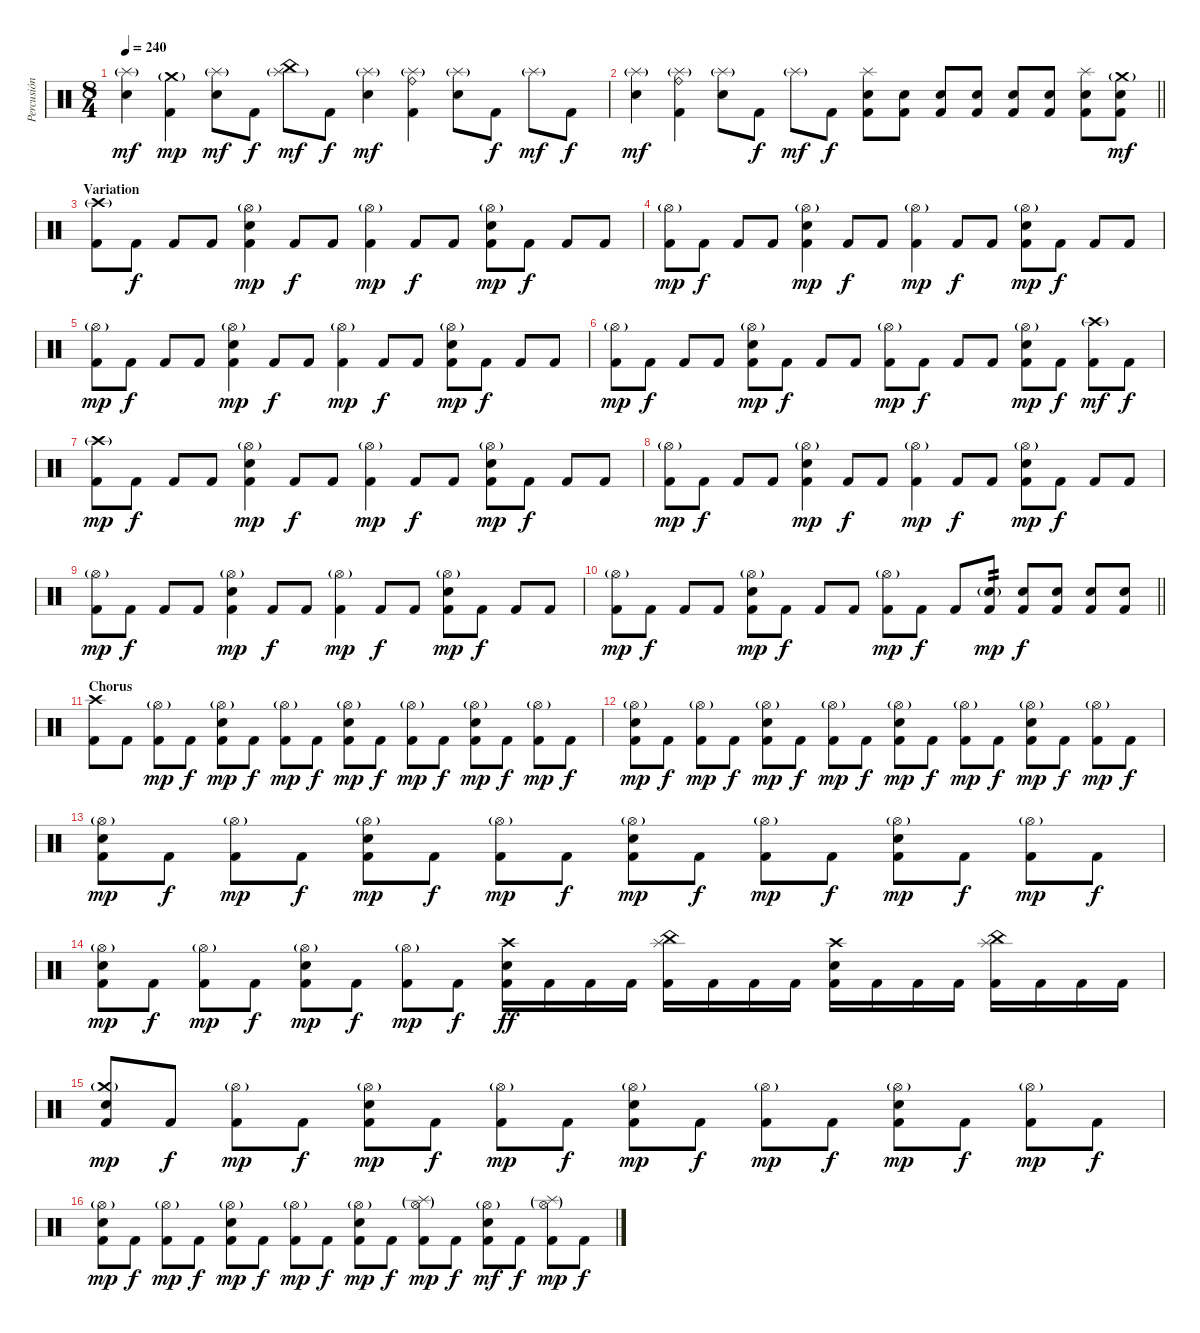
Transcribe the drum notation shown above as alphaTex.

\track ("Percusión" "Percusión") {instrument percussion}
\staff {score}
\articulation defaults
\ts (8 4)
\tempo 240
\clef neutral
\ks c
("Splash (hit)"{g} "Electric Snare (hit)").4{dy mf} ("Crash medium (hit)"{g} "Kick (hit) 2").4{dy mp} ("Splash (hit)"{g} "Electric Snare (hit)").8{dy mf} "Kick (hit) 2".8{dy f} ("China (hit)" "Splash (hit)"{g}).8{dy mf} "Kick (hit) 2".8{dy f} ("Splash (hit)"{g} "Electric Snare (hit)").4{dy mf} ("Ride (bell)" "Splash (hit)"{g} "Kick (hit) 2").4 ("Splash (hit)"{g} "Electric Snare (hit)").8 "Kick (hit) 2".8{dy f} "Splash (hit)"{g}.8{dy mf} "Kick (hit) 2".8{dy f} |
\barLineRight lightlight
("Splash (hit)"{g} "Electric Snare (hit)").4{dy mf} ("Ride (bell)" "Splash (hit)"{g} "Kick (hit) 2").4 ("Splash (hit)"{g} "Electric Snare (hit)").8 "Kick (hit) 2".8{dy f} "Splash (hit)"{g}.8{dy mf} "Kick (hit) 2".8{dy f} ("Splash (hit)" "Electric Snare (hit)" "Kick (hit) 2").8 ("Electric Snare (hit)" "Kick (hit) 2").8 ("Electric Snare (hit)" "Kick (hit) 2").8 ("Electric Snare (hit)" "Kick (hit) 2").8 ("Electric Snare (hit)" "Kick (hit) 2").8 ("Electric Snare (hit)" "Kick (hit) 2").8 ("Splash (hit)" "Electric Snare (hit)" "Kick (hit) 2").8 ("Crash medium (hit)"{g} "Electric Snare (hit)" "Kick (hit) 2").8{dy mf} |
\section ("" "Variation")
("Crash high (hit)"{g} "Kick (hit) 2").8 "Kick (hit) 2".8{dy f} "Kick (hit) 2".8 "Kick (hit) 2".8 ("Hi-Hat (open)"{g} "Electric Snare (hit)" "Kick (hit) 2").4{dy mp} "Kick (hit) 2".8{dy f} "Kick (hit) 2".8 ("Hi-Hat (open)"{g} "Kick (hit) 2").4{dy mp} "Kick (hit) 2".8{dy f} "Kick (hit) 2".8 ("Hi-Hat (open)"{g} "Electric Snare (hit)" "Kick (hit) 2").8{dy mp} "Kick (hit) 2".8{dy f} "Kick (hit) 2".8 "Kick (hit) 2".8 |
("Hi-Hat (open)"{g} "Kick (hit) 2").8{dy mp} "Kick (hit) 2".8{dy f} "Kick (hit) 2".8 "Kick (hit) 2".8 ("Hi-Hat (open)"{g} "Electric Snare (hit)" "Kick (hit) 2").4{dy mp} "Kick (hit) 2".8{dy f} "Kick (hit) 2".8 ("Hi-Hat (open)"{g} "Kick (hit) 2").4{dy mp} "Kick (hit) 2".8{dy f} "Kick (hit) 2".8 ("Hi-Hat (open)"{g} "Electric Snare (hit)" "Kick (hit) 2").8{dy mp} "Kick (hit) 2".8{dy f} "Kick (hit) 2".8 "Kick (hit) 2".8 |
("Hi-Hat (open)"{g} "Kick (hit) 2").8{dy mp} "Kick (hit) 2".8{dy f} "Kick (hit) 2".8 "Kick (hit) 2".8 ("Hi-Hat (open)"{g} "Electric Snare (hit)" "Kick (hit) 2").4{dy mp} "Kick (hit) 2".8{dy f} "Kick (hit) 2".8 ("Hi-Hat (open)"{g} "Kick (hit) 2").4{dy mp} "Kick (hit) 2".8{dy f} "Kick (hit) 2".8 ("Hi-Hat (open)"{g} "Electric Snare (hit)" "Kick (hit) 2").8{dy mp} "Kick (hit) 2".8{dy f} "Kick (hit) 2".8 "Kick (hit) 2".8 |
("Hi-Hat (open)"{g} "Kick (hit) 2").8{dy mp} "Kick (hit) 2".8{dy f} "Kick (hit) 2".8 "Kick (hit) 2".8 ("Hi-Hat (open)"{g} "Electric Snare (hit)" "Kick (hit) 2").8{dy mp} "Kick (hit) 2".8{dy f} "Kick (hit) 2".8 "Kick (hit) 2".8 ("Hi-Hat (open)"{g} "Kick (hit) 2").8{dy mp} "Kick (hit) 2".8{dy f} "Kick (hit) 2".8 "Kick (hit) 2".8 ("Hi-Hat (open)"{g} "Electric Snare (hit)" "Kick (hit) 2").8{dy mp} "Kick (hit) 2".8{dy f} ("Crash high (hit)"{g} "Kick (hit) 2").8{dy mf} "Kick (hit) 2".8{dy f} |
("Crash high (hit)"{g} "Kick (hit) 2").8{dy mp} "Kick (hit) 2".8{dy f} "Kick (hit) 2".8 "Kick (hit) 2".8 ("Hi-Hat (open)"{g} "Electric Snare (hit)" "Kick (hit) 2").4{dy mp} "Kick (hit) 2".8{dy f} "Kick (hit) 2".8 ("Hi-Hat (open)"{g} "Kick (hit) 2").4{dy mp} "Kick (hit) 2".8{dy f} "Kick (hit) 2".8 ("Hi-Hat (open)"{g} "Electric Snare (hit)" "Kick (hit) 2").8{dy mp} "Kick (hit) 2".8{dy f} "Kick (hit) 2".8 "Kick (hit) 2".8 |
("Hi-Hat (open)"{g} "Kick (hit) 2").8{dy mp} "Kick (hit) 2".8{dy f} "Kick (hit) 2".8 "Kick (hit) 2".8 ("Hi-Hat (open)"{g} "Electric Snare (hit)" "Kick (hit) 2").4{dy mp} "Kick (hit) 2".8{dy f} "Kick (hit) 2".8 ("Hi-Hat (open)"{g} "Kick (hit) 2").4{dy mp} "Kick (hit) 2".8{dy f} "Kick (hit) 2".8 ("Hi-Hat (open)"{g} "Electric Snare (hit)" "Kick (hit) 2").8{dy mp} "Kick (hit) 2".8{dy f} "Kick (hit) 2".8 "Kick (hit) 2".8 |
("Hi-Hat (open)"{g} "Kick (hit) 2").8{dy mp} "Kick (hit) 2".8{dy f} "Kick (hit) 2".8 "Kick (hit) 2".8 ("Hi-Hat (open)"{g} "Electric Snare (hit)" "Kick (hit) 2").4{dy mp} "Kick (hit) 2".8{dy f} "Kick (hit) 2".8 ("Hi-Hat (open)"{g} "Kick (hit) 2").4{dy mp} "Kick (hit) 2".8{dy f} "Kick (hit) 2".8 ("Hi-Hat (open)"{g} "Electric Snare (hit)" "Kick (hit) 2").8{dy mp} "Kick (hit) 2".8{dy f} "Kick (hit) 2".8 "Kick (hit) 2".8 |
\barLineRight lightlight
("Hi-Hat (open)"{g} "Kick (hit) 2").8{dy mp} "Kick (hit) 2".8{dy f} "Kick (hit) 2".8 "Kick (hit) 2".8 ("Hi-Hat (open)"{g} "Electric Snare (hit)" "Kick (hit) 2").8{dy mp} "Kick (hit) 2".8{dy f} "Kick (hit) 2".8 "Kick (hit) 2".8 ("Hi-Hat (open)"{g} "Kick (hit) 2").8{dy mp} "Kick (hit) 2".8{dy f} "Kick (hit) 2".8 ("Electric Snare (hit)"{g} "Kick (hit) 2").8{tp 2 dy mp} ("Electric Snare (hit)" "Kick (hit) 2").8{dy f} ("Electric Snare (hit)" "Kick (hit) 2").8 ("Electric Snare (hit)" "Kick (hit) 2").8 ("Electric Snare (hit)" "Kick (hit) 2").8 |
\section ("" "Chorus")
("Crash high (hit)" "Kick (hit) 2").8 "Kick (hit) 2".8 ("Hi-Hat (open)"{g} "Kick (hit) 2").8{dy mp} "Kick (hit) 2".8{dy f} ("Hi-Hat (open)"{g} "Electric Snare (hit)" "Kick (hit) 2").8{dy mp} "Kick (hit) 2".8{dy f} ("Hi-Hat (open)"{g} "Kick (hit) 2").8{dy mp} "Kick (hit) 2".8{dy f} ("Hi-Hat (open)"{g} "Electric Snare (hit)" "Kick (hit) 2").8{dy mp} "Kick (hit) 2".8{dy f} ("Hi-Hat (open)"{g} "Kick (hit) 2").8{dy mp} "Kick (hit) 2".8{dy f} ("Hi-Hat (open)"{g} "Electric Snare (hit)" "Kick (hit) 2").8{dy mp} "Kick (hit) 2".8{dy f} ("Hi-Hat (open)"{g} "Kick (hit) 2").8{dy mp} "Kick (hit) 2".8{dy f} |
("Hi-Hat (open)"{g} "Electric Snare (hit)" "Kick (hit) 2").8{dy mp} "Kick (hit) 2".8{dy f} ("Hi-Hat (open)"{g} "Kick (hit) 2").8{dy mp} "Kick (hit) 2".8{dy f} ("Hi-Hat (open)"{g} "Electric Snare (hit)" "Kick (hit) 2").8{dy mp} "Kick (hit) 2".8{dy f} ("Hi-Hat (open)"{g} "Kick (hit) 2").8{dy mp} "Kick (hit) 2".8{dy f} ("Hi-Hat (open)"{g} "Electric Snare (hit)" "Kick (hit) 2").8{dy mp} "Kick (hit) 2".8{dy f} ("Hi-Hat (open)"{g} "Kick (hit) 2").8{dy mp} "Kick (hit) 2".8{dy f} ("Hi-Hat (open)"{g} "Electric Snare (hit)" "Kick (hit) 2").8{dy mp} "Kick (hit) 2".8{dy f} ("Hi-Hat (open)"{g} "Kick (hit) 2").8{dy mp} "Kick (hit) 2".8{dy f} |
("Hi-Hat (open)"{g} "Electric Snare (hit)" "Kick (hit) 2").8{dy mp} "Kick (hit) 2".8{dy f} ("Hi-Hat (open)"{g} "Kick (hit) 2").8{dy mp} "Kick (hit) 2".8{dy f} ("Hi-Hat (open)"{g} "Electric Snare (hit)" "Kick (hit) 2").8{dy mp} "Kick (hit) 2".8{dy f} ("Hi-Hat (open)"{g} "Kick (hit) 2").8{dy mp} "Kick (hit) 2".8{dy f} ("Hi-Hat (open)"{g} "Electric Snare (hit)" "Kick (hit) 2").8{dy mp} "Kick (hit) 2".8{dy f} ("Hi-Hat (open)"{g} "Kick (hit) 2").8{dy mp} "Kick (hit) 2".8{dy f} ("Hi-Hat (open)"{g} "Electric Snare (hit)" "Kick (hit) 2").8{dy mp} "Kick (hit) 2".8{dy f} ("Hi-Hat (open)"{g} "Kick (hit) 2").8{dy mp} "Kick (hit) 2".8{dy f} |
("Hi-Hat (open)"{g} "Electric Snare (hit)" "Kick (hit) 2").8{dy mp} "Kick (hit) 2".8{dy f} ("Hi-Hat (open)"{g} "Kick (hit) 2").8{dy mp} "Kick (hit) 2".8{dy f} ("Hi-Hat (open)"{g} "Electric Snare (hit)" "Kick (hit) 2").8{dy mp} "Kick (hit) 2".8{dy f} ("Hi-Hat (open)"{g} "Kick (hit) 2").8{dy mp} "Kick (hit) 2".8{dy f} ("Crash high (hit)" "Electric Snare (hit)" "Kick (hit) 2").16{dy ff} "Kick (hit) 2".16 "Kick (hit) 2".16 "Kick (hit) 2".16 ("Splash (hit)" "China (hit)" "Kick (hit) 2").16 "Kick (hit) 2".16 "Kick (hit) 2".16 "Kick (hit) 2".16 ("Crash high (hit)" "Electric Snare (hit)" "Kick (hit) 2").16 "Kick (hit) 2".16 "Kick (hit) 2".16 "Kick (hit) 2".16 ("Splash (hit)" "China (hit)" "Kick (hit) 2").16 "Kick (hit) 2".16 "Kick (hit) 2".16 "Kick (hit) 2".16 |
("Crash medium (hit)"{g} "Electric Snare (hit)" "Kick (hit) 2").8{dy mp} "Kick (hit) 2".8{dy f} ("Hi-Hat (open)"{g} "Kick (hit) 2").8{dy mp} "Kick (hit) 2".8{dy f} ("Hi-Hat (open)"{g} "Electric Snare (hit)" "Kick (hit) 2").8{dy mp} "Kick (hit) 2".8{dy f} ("Hi-Hat (open)"{g} "Kick (hit) 2").8{dy mp} "Kick (hit) 2".8{dy f} ("Hi-Hat (open)"{g} "Electric Snare (hit)" "Kick (hit) 2").8{dy mp} "Kick (hit) 2".8{dy f} ("Hi-Hat (open)"{g} "Kick (hit) 2").8{dy mp} "Kick (hit) 2".8{dy f} ("Hi-Hat (open)"{g} "Electric Snare (hit)" "Kick (hit) 2").8{dy mp} "Kick (hit) 2".8{dy f} ("Hi-Hat (open)"{g} "Kick (hit) 2").8{dy mp} "Kick (hit) 2".8{dy f} |
("Hi-Hat (open)"{g} "Electric Snare (hit)" "Kick (hit) 2").8{dy mp} "Kick (hit) 2".8{dy f} ("Hi-Hat (open)"{g} "Kick (hit) 2").8{dy mp} "Kick (hit) 2".8{dy f} ("Hi-Hat (open)"{g} "Electric Snare (hit)" "Kick (hit) 2").8{dy mp} "Kick (hit) 2".8{dy f} ("Hi-Hat (open)"{g} "Kick (hit) 2").8{dy mp} "Kick (hit) 2".8{dy f} ("Hi-Hat (open)"{g} "Electric Snare (hit)" "Kick (hit) 2").8{dy mp} "Kick (hit) 2".8{dy f} ("Splash (hit)"{g} "Hi-Hat (open)"{g} "Kick (hit) 2").8{dy mp} "Kick (hit) 2".8{dy f} ("Hi-Hat (open)"{g} "Electric Snare (hit)" "Kick (hit) 2").8{dy mf} "Kick (hit) 2".8{dy f} ("Splash (hit)"{g} "Hi-Hat (open)"{g} "Kick (hit) 2").8{dy mp} "Kick (hit) 2".8{dy f}
